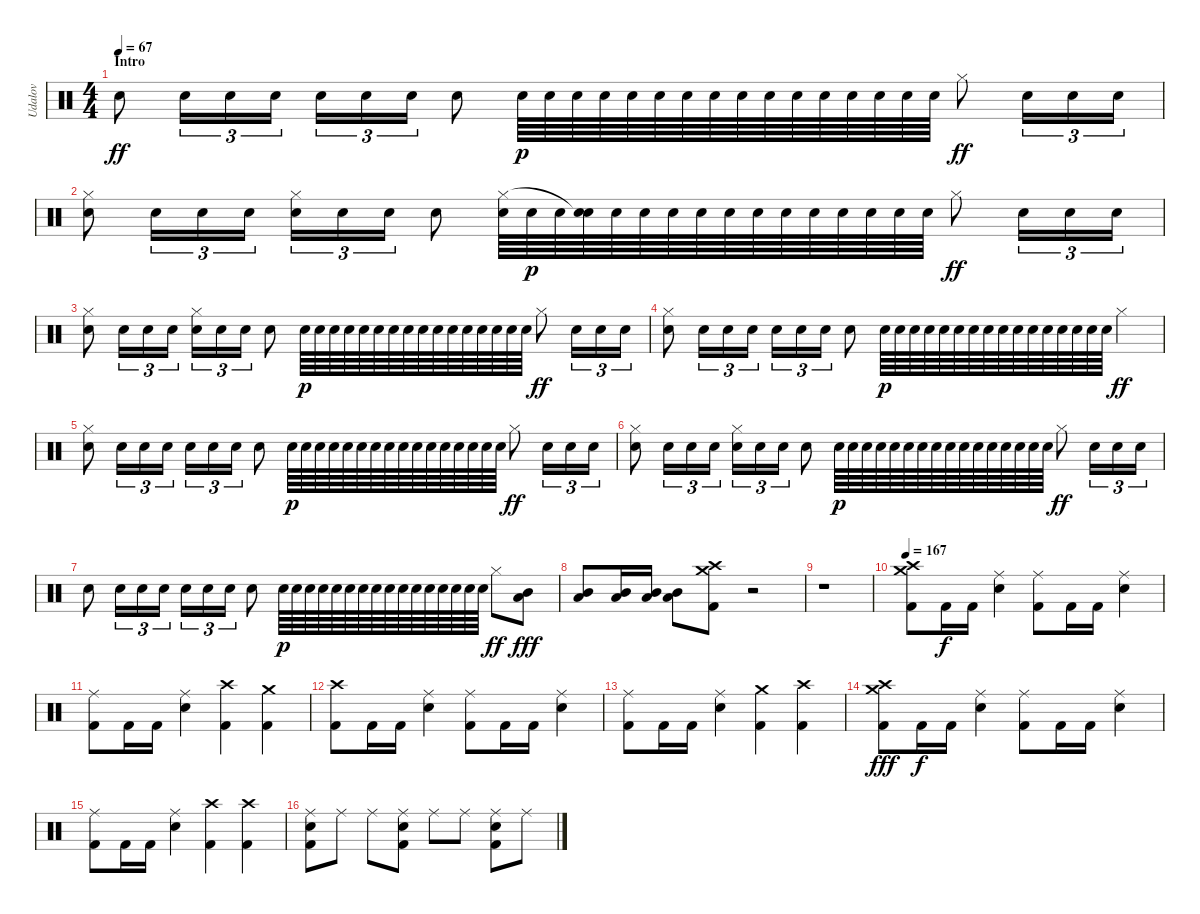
\track ("Udalov" "Udalov") {instrument percussion}
\staff {score}
\articulation defaults
\ts (4 4)
\section ("" "Intro")
\tempo 67
\clef neutral
\ks c "Electric Snare (hit)".8{dy ff} "Electric Snare (hit)".16{tu (3 2)} "Electric Snare (hit)".16{tu (3 2)} "Electric Snare (hit)".16{tu (3 2)} "Electric Snare (hit)".16{tu (3 2)} "Electric Snare (hit)".16{tu (3 2)} "Electric Snare (hit)".16{tu (3 2)} "Electric Snare (hit)".8 "Electric Snare (hit)".64{dy p} "Electric Snare (hit)".64 "Electric Snare (hit)".64 "Electric Snare (hit)".64 "Electric Snare (hit)".64 "Electric Snare (hit)".64 "Electric Snare (hit)".64 "Electric Snare (hit)".64 "Electric Snare (hit)".64 "Electric Snare (hit)".64 "Electric Snare (hit)".64 "Electric Snare (hit)".64 "Electric Snare (hit)".64 "Electric Snare (hit)".64 "Electric Snare (hit)".64 "Electric Snare (hit)".64 "Hi-Hat (closed)".8{dy ff} "Electric Snare (hit)".16{tu (3 2)} "Electric Snare (hit)".16{tu (3 2)} "Electric Snare (hit)".16{tu (3 2)}
|
("Electric Snare (hit)" "Hi-Hat (closed)").8 "Electric Snare (hit)".16{tu (3 2)} "Electric Snare (hit)".16{tu (3 2)} "Electric Snare (hit)".16{tu (3 2)} ("Electric Snare (hit)" "Hi-Hat (closed)").16{tu (3 2)} "Electric Snare (hit)".16{tu (3 2)} "Electric Snare (hit)".16{tu (3 2)} "Electric Snare (hit)".8 ("Electric Snare (hit)" "Hi-Hat (closed)").64 "Electric Snare (hit)".64{dy p} "Electric Snare (hit)".64 ("Electric Snare (hit)" "Snare (hit)"{t}).64 "Electric Snare (hit)".64 "Electric Snare (hit)".64 "Electric Snare (hit)".64 "Electric Snare (hit)".64 "Electric Snare (hit)".64 "Electric Snare (hit)".64 "Electric Snare (hit)".64 "Electric Snare (hit)".64 "Electric Snare (hit)".64 "Electric Snare (hit)".64 "Electric Snare (hit)".64 "Electric Snare (hit)".64 "Hi-Hat (closed)".8{dy ff} "Electric Snare (hit)".16{tu (3 2)} "Electric Snare (hit)".16{tu (3 2)} "Electric Snare (hit)".16{tu (3 2)} |
("Electric Snare (hit)" "Hi-Hat (closed)").8 "Electric Snare (hit)".16{tu (3 2)} "Electric Snare (hit)".16{tu (3 2)} "Electric Snare (hit)".16{tu (3 2)} ("Electric Snare (hit)" "Hi-Hat (closed)").16{tu (3 2)} "Electric Snare (hit)".16{tu (3 2)} "Electric Snare (hit)".16{tu (3 2)} "Electric Snare (hit)".8 "Electric Snare (hit)".64{dy p} "Electric Snare (hit)".64 "Electric Snare (hit)".64 "Electric Snare (hit)".64 "Electric Snare (hit)".64 "Electric Snare (hit)".64 "Electric Snare (hit)".64 "Electric Snare (hit)".64 "Electric Snare (hit)".64 "Electric Snare (hit)".64 "Electric Snare (hit)".64 "Electric Snare (hit)".64 "Electric Snare (hit)".64 "Electric Snare (hit)".64 "Electric Snare (hit)".64 "Electric Snare (hit)".64 "Hi-Hat (closed)".8{dy ff} "Electric Snare (hit)".16{tu (3 2)} "Electric Snare (hit)".16{tu (3 2)} "Electric Snare (hit)".16{tu (3 2)} |
("Electric Snare (hit)" "Hi-Hat (closed)").8 "Electric Snare (hit)".16{tu (3 2)} "Electric Snare (hit)".16{tu (3 2)} "Electric Snare (hit)".16{tu (3 2)} "Electric Snare (hit)".16{tu (3 2)} "Electric Snare (hit)".16{tu (3 2)} "Electric Snare (hit)".16{tu (3 2)} "Electric Snare (hit)".8 "Electric Snare (hit)".64{dy p} "Electric Snare (hit)".64 "Electric Snare (hit)".64 "Electric Snare (hit)".64 "Electric Snare (hit)".64 "Electric Snare (hit)".64 "Electric Snare (hit)".64 "Electric Snare (hit)".64 "Electric Snare (hit)".64 "Electric Snare (hit)".64 "Electric Snare (hit)".64 "Electric Snare (hit)".64 "Electric Snare (hit)".64 "Electric Snare (hit)".64 "Electric Snare (hit)".64 "Electric Snare (hit)".64 "Hi-Hat (closed)".4{dy ff} |
("Electric Snare (hit)" "Hi-Hat (closed)").8 "Electric Snare (hit)".16{tu (3 2)} "Electric Snare (hit)".16{tu (3 2)} "Electric Snare (hit)".16{tu (3 2)} "Electric Snare (hit)".16{tu (3 2)} "Electric Snare (hit)".16{tu (3 2)} "Electric Snare (hit)".16{tu (3 2)} "Electric Snare (hit)".8 "Electric Snare (hit)".64{dy p} "Electric Snare (hit)".64 "Electric Snare (hit)".64 "Electric Snare (hit)".64 "Electric Snare (hit)".64 "Electric Snare (hit)".64 "Electric Snare (hit)".64 "Electric Snare (hit)".64 "Electric Snare (hit)".64 "Electric Snare (hit)".64 "Electric Snare (hit)".64 "Electric Snare (hit)".64 "Electric Snare (hit)".64 "Electric Snare (hit)".64 "Electric Snare (hit)".64 "Electric Snare (hit)".64 "Hi-Hat (closed)".8{dy ff} "Electric Snare (hit)".16{tu (3 2)} "Electric Snare (hit)".16{tu (3 2)} "Electric Snare (hit)".16{tu (3 2)} |
("Electric Snare (hit)" "Hi-Hat (closed)").8 "Electric Snare (hit)".16{tu (3 2)} "Electric Snare (hit)".16{tu (3 2)} "Electric Snare (hit)".16{tu (3 2)} ("Electric Snare (hit)" "Hi-Hat (closed)").16{tu (3 2)} "Electric Snare (hit)".16{tu (3 2)} "Electric Snare (hit)".16{tu (3 2)} "Electric Snare (hit)".8 "Electric Snare (hit)".64{dy p} "Electric Snare (hit)".64 "Electric Snare (hit)".64 "Electric Snare (hit)".64 "Electric Snare (hit)".64 "Electric Snare (hit)".64 "Electric Snare (hit)".64 "Electric Snare (hit)".64 "Electric Snare (hit)".64 "Electric Snare (hit)".64 "Electric Snare (hit)".64 "Electric Snare (hit)".64 "Electric Snare (hit)".64 "Electric Snare (hit)".64 "Electric Snare (hit)".64 "Electric Snare (hit)".64 "Hi-Hat (closed)".8{dy ff} "Electric Snare (hit)".16{tu (3 2)} "Electric Snare (hit)".16{tu (3 2)} "Electric Snare (hit)".16{tu (3 2)} |
"Electric Snare (hit)".8 "Electric Snare (hit)".16{tu (3 2)} "Electric Snare (hit)".16{tu (3 2)} "Electric Snare (hit)".16{tu (3 2)} "Electric Snare (hit)".16{tu (3 2)} "Electric Snare (hit)".16{tu (3 2)} "Electric Snare (hit)".16{tu (3 2)} "Electric Snare (hit)".8 "Electric Snare (hit)".64{dy p} "Electric Snare (hit)".64 "Electric Snare (hit)".64 "Electric Snare (hit)".64 "Electric Snare (hit)".64 "Electric Snare (hit)".64 "Electric Snare (hit)".64 "Electric Snare (hit)".64 "Electric Snare (hit)".64 "Electric Snare (hit)".64 "Electric Snare (hit)".64 "Electric Snare (hit)".64 "Electric Snare (hit)".64 "Electric Snare (hit)".64 "Electric Snare (hit)".64 "Electric Snare (hit)".64 "Hi-Hat (closed)".8{dy ff} ("Mid Tom (hit)" "Low Tom (hit)").8{dy fff} |
("Mid Tom (hit)" "Low Tom (hit)").8 ("Mid Tom (hit)" "Low Tom (hit)").16 ("Low Tom (hit)" "Mid Tom (hit)").16 ("Mid Tom (hit)" "Low Tom (hit)").8 ("Kick (hit) 2" "Crash high (hit)" "Crash medium (hit)").8 r.2 |
r.1 |
\tempo 167
("Kick (hit) 2" "Crash high (hit)" "Crash medium (hit)").8 "Kick (hit) 2".16{dy f} "Kick (hit) 2".16 ("Snare (hit) 2" "Ride (middle)").4 ("Kick (hit) 2" "Ride (middle)").8 "Kick (hit) 2".16 "Kick (hit) 2".16 ("Snare (hit) 2" "Ride (middle)").4 |
("Kick (hit) 2" "Ride (middle)").8 "Kick (hit) 2".16 "Kick (hit) 2".16 ("Snare (hit) 2" "Ride (middle)").4 ("Kick (hit) 2" "Crash high (hit)").4 ("Kick (hit) 2" "Crash medium (hit)").4 |
("Kick (hit) 2" "Crash high (hit)").8 "Kick (hit) 2".16 "Kick (hit) 2".16 ("Snare (hit) 2" "Ride (middle)").4 ("Kick (hit) 2" "Ride (middle)").8 "Kick (hit) 2".16 "Kick (hit) 2".16 ("Snare (hit) 2" "Ride (middle)").4 |
("Kick (hit) 2" "Ride (middle)").8 "Kick (hit) 2".16 "Kick (hit) 2".16 ("Snare (hit) 2" "Ride (middle)").4 ("Kick (hit) 2" "Crash medium (hit)").4 ("Kick (hit) 2" "Crash high (hit)").4 |
("Kick (hit) 2" "Crash high (hit)" "Crash medium (hit)").8{dy fff} "Kick (hit) 2".16{dy f} "Kick (hit) 2".16 ("Snare (hit) 2" "Ride (middle)").4 ("Kick (hit) 2" "Ride (middle)").8 "Kick (hit) 2".16 "Kick (hit) 2".16 ("Snare (hit) 2" "Ride (middle)").4 |
("Kick (hit) 2" "Ride (middle)").8 "Kick (hit) 2".16 "Kick (hit) 2".16 ("Snare (hit) 2" "Ride (middle)").4 ("Kick (hit) 2" "Crash high (hit)").4 ("Kick (hit) 2" "Crash high (hit)").4 |
("Electric Snare (hit)" "Ride (middle)" "Kick (hit) 2").8 "Ride (middle)".8 "Ride (middle)".8 ("Electric Snare (hit)" "Ride (middle)" "Kick (hit) 2").8 "Ride (middle)".8 "Ride (middle)".8 ("Electric Snare (hit)" "Ride (middle)" "Kick (hit) 2").8 "Ride (middle)".8
